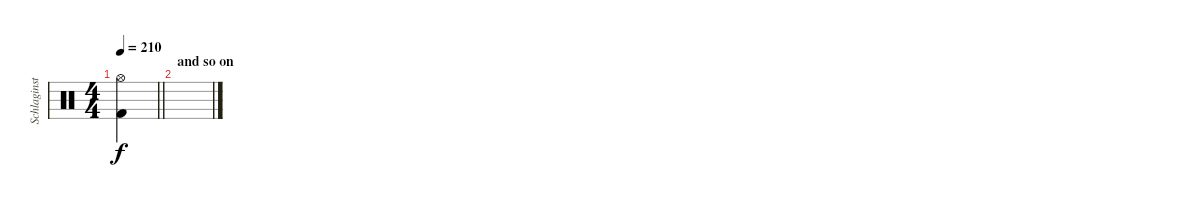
\track ("Schlaginstrumente - Auswahl" "Schlaginst") {instrument percussion}
\staff {score}
\articulation defaults
\ts (4 4)
\tempo 210
\clef neutral
\barLineRight lightlight
\ks c
("Hi-Hat (open)" "Kick (hit) 2").4{dy f} |
\section ("" "and so on")
